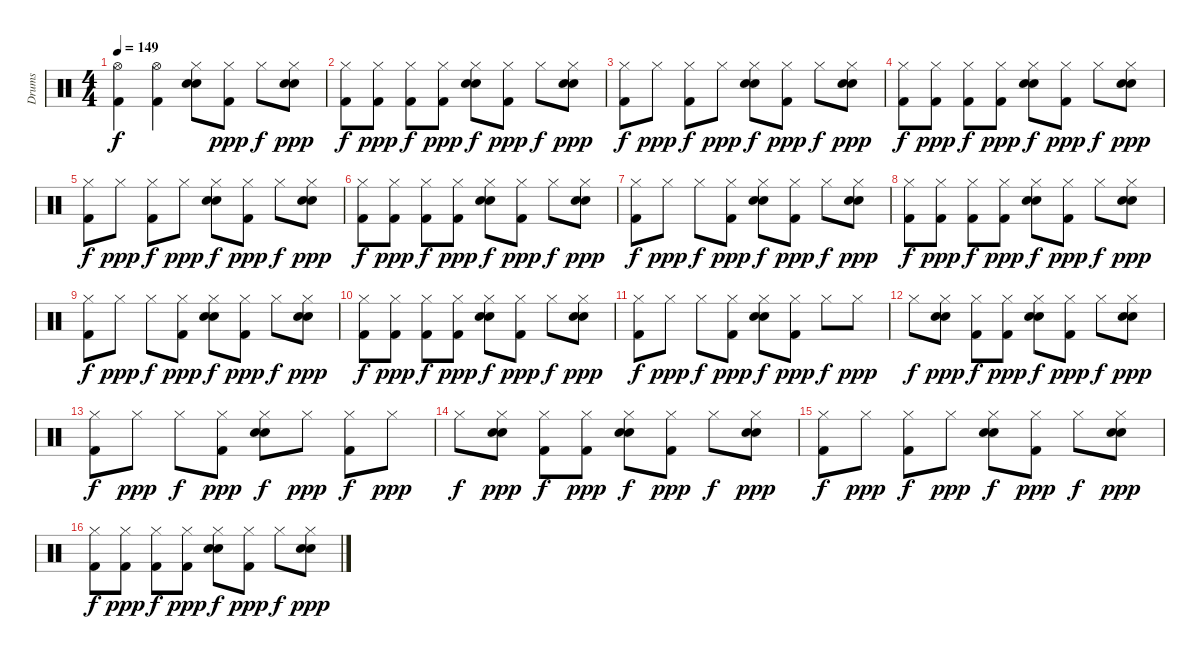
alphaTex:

\track ("Drums" "Drums") {instrument percussion}
\staff {score}
\articulation defaults
\ts (4 4)
\tempo 149
\clef neutral
\ks c
("Kick (hit) 2" "Hi-Hat (open)").4{dy f} ("Kick (hit) 2" "Hi-Hat (open)").4 ("Electric Snare (hit)" "Snare (hit) 2" "Hi-Hat (closed)").8 ("Kick (hit) 2" "Hi-Hat (closed)").8{dy ppp} "Hi-Hat (closed)".8{dy f} ("Electric Snare (hit)" "Snare (hit) 2" "Hi-Hat (closed)").8{dy ppp} |
("Kick (hit) 2" "Hi-Hat (closed)").8{dy f} ("Kick (hit) 2" "Hi-Hat (closed)").8{dy ppp} ("Kick (hit) 2" "Hi-Hat (closed)").8{dy f} ("Kick (hit) 2" "Hi-Hat (closed)").8{dy ppp} ("Electric Snare (hit)" "Snare (hit) 2" "Hi-Hat (closed)").8{dy f} ("Kick (hit) 2" "Hi-Hat (closed)").8{dy ppp} "Hi-Hat (closed)".8{dy f} ("Electric Snare (hit)" "Snare (hit) 2" "Hi-Hat (closed)").8{dy ppp} |
("Kick (hit) 2" "Hi-Hat (closed)").8{dy f} "Hi-Hat (closed)".8{dy ppp} ("Kick (hit) 2" "Hi-Hat (closed)").8{dy f} "Hi-Hat (closed)".8{dy ppp} ("Electric Snare (hit)" "Snare (hit) 2" "Hi-Hat (closed)").8{dy f} ("Kick (hit) 2" "Hi-Hat (closed)").8{dy ppp} "Hi-Hat (closed)".8{dy f} ("Electric Snare (hit)" "Snare (hit) 2" "Hi-Hat (closed)").8{dy ppp} |
("Kick (hit) 2" "Hi-Hat (closed)").8{dy f} ("Kick (hit) 2" "Hi-Hat (closed)").8{dy ppp} ("Kick (hit) 2" "Hi-Hat (closed)").8{dy f} ("Kick (hit) 2" "Hi-Hat (closed)").8{dy ppp} ("Electric Snare (hit)" "Snare (hit) 2" "Hi-Hat (closed)").8{dy f} ("Kick (hit) 2" "Hi-Hat (closed)").8{dy ppp} "Hi-Hat (closed)".8{dy f} ("Electric Snare (hit)" "Snare (hit) 2" "Hi-Hat (closed)").8{dy ppp} |
("Kick (hit) 2" "Hi-Hat (closed)").8{dy f} "Hi-Hat (closed)".8{dy ppp} ("Kick (hit) 2" "Hi-Hat (closed)").8{dy f} "Hi-Hat (closed)".8{dy ppp} ("Electric Snare (hit)" "Snare (hit) 2" "Hi-Hat (closed)").8{dy f} ("Kick (hit) 2" "Hi-Hat (closed)").8{dy ppp} "Hi-Hat (closed)".8{dy f} ("Electric Snare (hit)" "Snare (hit) 2" "Hi-Hat (closed)").8{dy ppp} |
("Kick (hit) 2" "Hi-Hat (closed)").8{dy f} ("Kick (hit) 2" "Hi-Hat (closed)").8{dy ppp} ("Kick (hit) 2" "Hi-Hat (closed)").8{dy f} ("Kick (hit) 2" "Hi-Hat (closed)").8{dy ppp} ("Electric Snare (hit)" "Snare (hit) 2" "Hi-Hat (closed)").8{dy f} ("Kick (hit) 2" "Hi-Hat (closed)").8{dy ppp} "Hi-Hat (closed)".8{dy f} ("Electric Snare (hit)" "Snare (hit) 2" "Hi-Hat (closed)").8{dy ppp} |
("Kick (hit) 2" "Hi-Hat (closed)").8{dy f} "Hi-Hat (closed)".8{dy ppp} "Hi-Hat (closed)".8{dy f} ("Kick (hit) 2" "Hi-Hat (closed)").8{dy ppp} ("Electric Snare (hit)" "Snare (hit) 2" "Hi-Hat (closed)").8{dy f} ("Kick (hit) 2" "Hi-Hat (closed)").8{dy ppp} "Hi-Hat (closed)".8{dy f} ("Electric Snare (hit)" "Snare (hit) 2" "Hi-Hat (closed)").8{dy ppp} |
("Kick (hit) 2" "Hi-Hat (closed)").8{dy f} ("Kick (hit) 2" "Hi-Hat (closed)").8{dy ppp} ("Kick (hit) 2" "Hi-Hat (closed)").8{dy f} ("Kick (hit) 2" "Hi-Hat (closed)").8{dy ppp} ("Electric Snare (hit)" "Snare (hit) 2" "Hi-Hat (closed)").8{dy f} ("Kick (hit) 2" "Hi-Hat (closed)").8{dy ppp} "Hi-Hat (closed)".8{dy f} ("Electric Snare (hit)" "Snare (hit) 2" "Hi-Hat (closed)").8{dy ppp} |
("Kick (hit) 2" "Hi-Hat (closed)").8{dy f} "Hi-Hat (closed)".8{dy ppp} "Hi-Hat (closed)".8{dy f} ("Kick (hit) 2" "Hi-Hat (closed)").8{dy ppp} ("Electric Snare (hit)" "Snare (hit) 2" "Hi-Hat (closed)").8{dy f} ("Kick (hit) 2" "Hi-Hat (closed)").8{dy ppp} "Hi-Hat (closed)".8{dy f} ("Electric Snare (hit)" "Snare (hit) 2" "Hi-Hat (closed)").8{dy ppp} |
("Kick (hit) 2" "Hi-Hat (closed)").8{dy f} ("Kick (hit) 2" "Hi-Hat (closed)").8{dy ppp} ("Kick (hit) 2" "Hi-Hat (closed)").8{dy f} ("Kick (hit) 2" "Hi-Hat (closed)").8{dy ppp} ("Electric Snare (hit)" "Snare (hit) 2" "Hi-Hat (closed)").8{dy f} ("Kick (hit) 2" "Hi-Hat (closed)").8{dy ppp} "Hi-Hat (closed)".8{dy f} ("Electric Snare (hit)" "Snare (hit) 2" "Hi-Hat (closed)").8{dy ppp} |
("Kick (hit) 2" "Hi-Hat (closed)").8{dy f} "Hi-Hat (closed)".8{dy ppp} "Hi-Hat (closed)".8{dy f} ("Kick (hit) 2" "Hi-Hat (closed)").8{dy ppp} ("Electric Snare (hit)" "Snare (hit) 2" "Hi-Hat (closed)").8{dy f} ("Kick (hit) 2" "Hi-Hat (closed)").8{dy ppp} "Hi-Hat (closed)".8{dy f} "Hi-Hat (closed)".8{dy ppp} |
"Hi-Hat (closed)".8{dy f} ("Electric Snare (hit)" "Snare (hit) 2" "Hi-Hat (closed)").8{dy ppp} ("Kick (hit) 2" "Hi-Hat (closed)").8{dy f} ("Kick (hit) 2" "Hi-Hat (closed)").8{dy ppp} ("Electric Snare (hit)" "Snare (hit) 2" "Hi-Hat (closed)").8{dy f} ("Kick (hit) 2" "Hi-Hat (closed)").8{dy ppp} "Hi-Hat (closed)".8{dy f} ("Electric Snare (hit)" "Snare (hit) 2" "Hi-Hat (closed)").8{dy ppp} |
("Kick (hit) 2" "Hi-Hat (closed)").8{dy f} "Hi-Hat (closed)".8{dy ppp} "Hi-Hat (closed)".8{dy f} ("Kick (hit) 2" "Hi-Hat (closed)").8{dy ppp} ("Electric Snare (hit)" "Snare (hit) 2" "Hi-Hat (closed)").8{dy f} "Hi-Hat (closed)".8{dy ppp} ("Kick (hit) 2" "Hi-Hat (closed)").8{dy f} "Hi-Hat (closed)".8{dy ppp} |
"Hi-Hat (closed)".8{dy f} ("Electric Snare (hit)" "Snare (hit) 2" "Hi-Hat (closed)").8{dy ppp} ("Kick (hit) 2" "Hi-Hat (closed)").8{dy f} ("Kick (hit) 2" "Hi-Hat (closed)").8{dy ppp} ("Electric Snare (hit)" "Snare (hit) 2" "Hi-Hat (closed)").8{dy f} ("Kick (hit) 2" "Hi-Hat (closed)").8{dy ppp} "Hi-Hat (closed)".8{dy f} ("Electric Snare (hit)" "Snare (hit) 2" "Hi-Hat (closed)").8{dy ppp} |
("Kick (hit) 2" "Hi-Hat (closed)").8{dy f} "Hi-Hat (closed)".8{dy ppp} ("Kick (hit) 2" "Hi-Hat (closed)").8{dy f} "Hi-Hat (closed)".8{dy ppp} ("Electric Snare (hit)" "Snare (hit) 2" "Hi-Hat (closed)").8{dy f} ("Kick (hit) 2" "Hi-Hat (closed)").8{dy ppp} "Hi-Hat (closed)".8{dy f} ("Electric Snare (hit)" "Snare (hit) 2" "Hi-Hat (closed)").8{dy ppp} |
("Kick (hit) 2" "Hi-Hat (closed)").8{dy f} ("Kick (hit) 2" "Hi-Hat (closed)").8{dy ppp} ("Kick (hit) 2" "Hi-Hat (closed)").8{dy f} ("Kick (hit) 2" "Hi-Hat (closed)").8{dy ppp} ("Electric Snare (hit)" "Snare (hit) 2" "Hi-Hat (closed)").8{dy f} ("Kick (hit) 2" "Hi-Hat (closed)").8{dy ppp} "Hi-Hat (closed)".8{dy f} ("Electric Snare (hit)" "Snare (hit) 2" "Hi-Hat (closed)").8{dy ppp}
